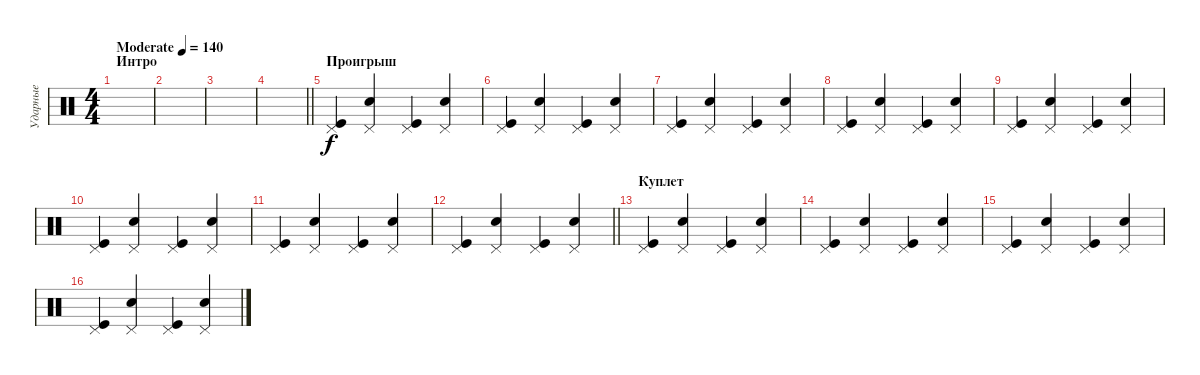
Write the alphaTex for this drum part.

\track ("Ударные" "Ударные") {instrument percussion}
\staff {score}
\articulation defaults
\ts (4 4)
\section ("" "Интро")
\tempo (140 "Moderate")
\clef neutral
\ks c
|
|
|
\barLineRight lightlight
|
\section ("" "Проигрыш")
("Kick (hit)" "Pedal Hi-Hat (hit)").4 ("Electric Snare (hit)" "Pedal Hi-Hat (hit)").4 ("Kick (hit)" "Pedal Hi-Hat (hit)").4 ("Electric Snare (hit)" "Pedal Hi-Hat (hit)").4 |
("Kick (hit)" "Pedal Hi-Hat (hit)").4 ("Electric Snare (hit)" "Pedal Hi-Hat (hit)").4 ("Kick (hit)" "Pedal Hi-Hat (hit)").4 ("Electric Snare (hit)" "Pedal Hi-Hat (hit)").4 |
("Kick (hit)" "Pedal Hi-Hat (hit)").4 ("Electric Snare (hit)" "Pedal Hi-Hat (hit)").4 ("Kick (hit)" "Pedal Hi-Hat (hit)").4 ("Electric Snare (hit)" "Pedal Hi-Hat (hit)").4 |
("Kick (hit)" "Pedal Hi-Hat (hit)").4 ("Electric Snare (hit)" "Pedal Hi-Hat (hit)").4 ("Kick (hit)" "Pedal Hi-Hat (hit)").4 ("Electric Snare (hit)" "Pedal Hi-Hat (hit)").4 |
("Kick (hit)" "Pedal Hi-Hat (hit)").4 ("Electric Snare (hit)" "Pedal Hi-Hat (hit)").4 ("Kick (hit)" "Pedal Hi-Hat (hit)").4 ("Electric Snare (hit)" "Pedal Hi-Hat (hit)").4 |
("Kick (hit)" "Pedal Hi-Hat (hit)").4 ("Electric Snare (hit)" "Pedal Hi-Hat (hit)").4 ("Kick (hit)" "Pedal Hi-Hat (hit)").4 ("Electric Snare (hit)" "Pedal Hi-Hat (hit)").4 |
("Kick (hit)" "Pedal Hi-Hat (hit)").4 ("Electric Snare (hit)" "Pedal Hi-Hat (hit)").4 ("Kick (hit)" "Pedal Hi-Hat (hit)").4 ("Electric Snare (hit)" "Pedal Hi-Hat (hit)").4 |
\barLineRight lightlight
("Kick (hit)" "Pedal Hi-Hat (hit)").4 ("Electric Snare (hit)" "Pedal Hi-Hat (hit)").4 ("Kick (hit)" "Pedal Hi-Hat (hit)").4 ("Electric Snare (hit)" "Pedal Hi-Hat (hit)").4 |
\section ("" "Куплет")
("Kick (hit)" "Pedal Hi-Hat (hit)").4 ("Electric Snare (hit)" "Pedal Hi-Hat (hit)").4 ("Kick (hit)" "Pedal Hi-Hat (hit)").4 ("Electric Snare (hit)" "Pedal Hi-Hat (hit)").4 |
("Kick (hit)" "Pedal Hi-Hat (hit)").4 ("Electric Snare (hit)" "Pedal Hi-Hat (hit)").4 ("Kick (hit)" "Pedal Hi-Hat (hit)").4 ("Electric Snare (hit)" "Pedal Hi-Hat (hit)").4 |
("Kick (hit)" "Pedal Hi-Hat (hit)").4 ("Electric Snare (hit)" "Pedal Hi-Hat (hit)").4 ("Kick (hit)" "Pedal Hi-Hat (hit)").4 ("Electric Snare (hit)" "Pedal Hi-Hat (hit)").4 |
("Kick (hit)" "Pedal Hi-Hat (hit)").4 ("Electric Snare (hit)" "Pedal Hi-Hat (hit)").4 ("Kick (hit)" "Pedal Hi-Hat (hit)").4 ("Electric Snare (hit)" "Pedal Hi-Hat (hit)").4
